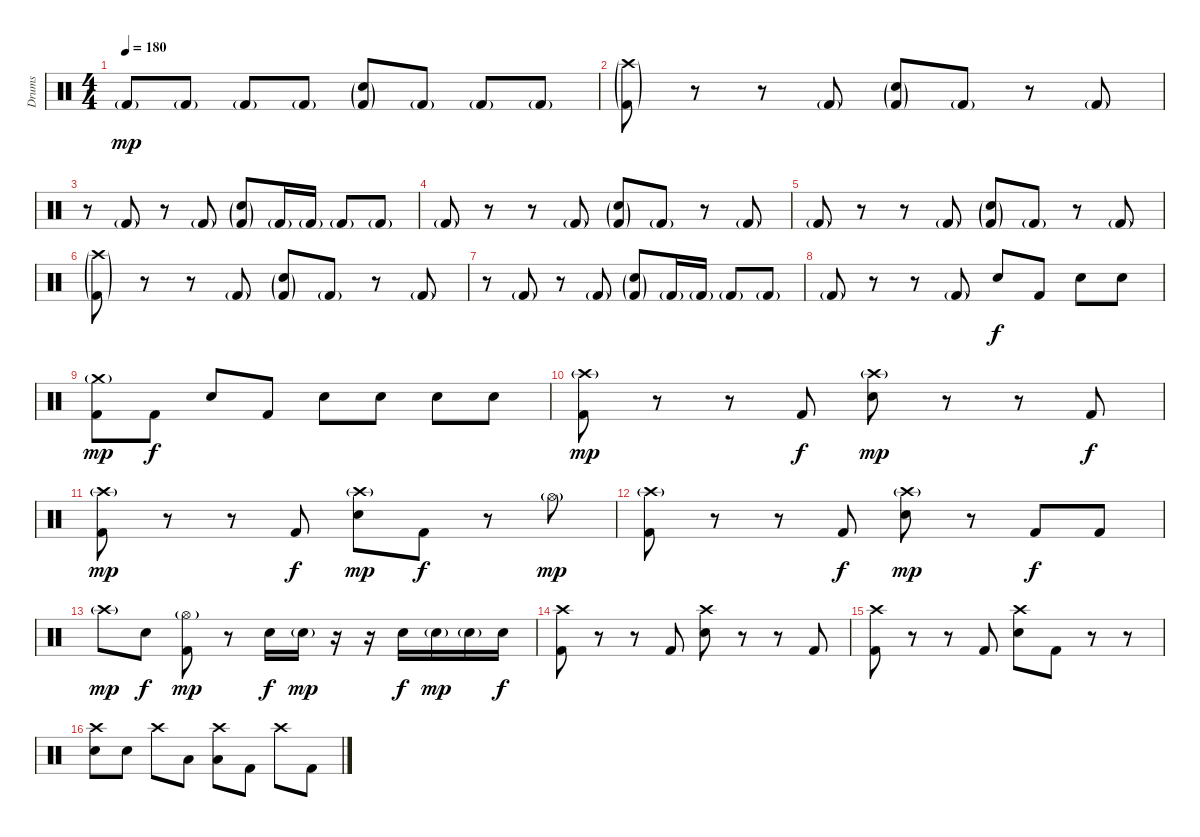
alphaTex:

\track ("Drums" "Drums") {instrument percussion}
\staff {score}
\articulation defaults
\ts (4 4)
\tempo 180
\clef neutral
\ks c "Kick (hit) 2"{g}.8{dy mp} "Kick (hit) 2"{g}.8 "Kick (hit) 2"{g}.8 "Kick (hit) 2"{g}.8
("Snare (hit) 2"{g} "Kick (hit) 2"{g}).8 "Kick (hit) 2"{g}.8 "Kick (hit) 2"{g}.8 "Kick (hit) 2"{g}.8 |
("Crash high (hit)"{g} "Kick (hit) 2"{g}).8 r.8 r.8 "Kick (hit) 2"{g}.8 ("Snare (hit) 2"{g} "Kick (hit) 2"{g}).8 "Kick (hit) 2"{g}.8 r.8 "Kick (hit) 2"{g}.8 |
r.8 "Kick (hit) 2"{g}.8 r.8 "Kick (hit) 2"{g}.8 ("Snare (hit) 2"{g} "Kick (hit) 2"{g}).8 "Kick (hit) 2"{g}.16 "Kick (hit) 2"{g}.16 "Kick (hit) 2"{g}.8 "Kick (hit) 2"{g}.8 |
"Kick (hit) 2"{g}.8 r.8 r.8 "Kick (hit) 2"{g}.8 ("Snare (hit) 2"{g} "Kick (hit) 2"{g}).8 "Kick (hit) 2"{g}.8 r.8 "Kick (hit) 2"{g}.8 |
"Kick (hit) 2"{g}.8 r.8 r.8 "Kick (hit) 2"{g}.8 ("Snare (hit) 2"{g} "Kick (hit) 2"{g}).8 "Kick (hit) 2"{g}.8 r.8 "Kick (hit) 2"{g}.8 |
("Crash high (hit)"{g} "Kick (hit) 2"{g}).8 r.8 r.8 "Kick (hit) 2"{g}.8 ("Snare (hit) 2"{g} "Kick (hit) 2"{g}).8 "Kick (hit) 2"{g}.8 r.8 "Kick (hit) 2"{g}.8 |
r.8 "Kick (hit) 2"{g}.8 r.8 "Kick (hit) 2"{g}.8 ("Snare (hit) 2"{g} "Kick (hit) 2"{g}).8 "Kick (hit) 2"{g}.16 "Kick (hit) 2"{g}.16 "Kick (hit) 2"{g}.8 "Kick (hit) 2"{g}.8 |
"Kick (hit) 2"{g}.8 r.8 r.8 "Kick (hit) 2"{g}.8 "Snare (hit) 2".8{dy f} "Kick (hit) 2".8 "Snare (hit) 2".8 "Snare (hit) 2".8 |
("Crash medium (hit)"{g} "Kick (hit) 2").8{dy mp} "Kick (hit) 2".8{dy f} "Snare (hit) 2".8 "Kick (hit) 2".8 "Snare (hit) 2".8 "Snare (hit) 2".8 "Snare (hit) 2".8 "Snare (hit) 2".8 |
("Crash high (hit)"{g} "Kick (hit) 2").8{dy mp} r.8 r.8 "Kick (hit) 2".8{dy f} ("Crash high (hit)"{g} "Snare (hit) 2").8{dy mp} r.8 r.8 "Kick (hit) 2".8{dy f} |
("Crash high (hit)"{g} "Kick (hit) 2").8{dy mp} r.8 r.8 "Kick (hit) 2".8{dy f} ("Crash high (hit)"{g} "Snare (hit) 2").8{dy mp} "Kick (hit) 2".8{dy f} r.8 "Hi-Hat (open)"{g}.8{dy mp} |
("Crash high (hit)"{g} "Kick (hit) 2").8 r.8 r.8 "Kick (hit) 2".8{dy f} ("Crash high (hit)"{g} "Snare (hit) 2").8{dy mp} r.8 "Kick (hit) 2".8{dy f} "Kick (hit) 2".8 |
"Crash high (hit)"{g}.8{dy mp} "Snare (hit) 2".8{dy f} ("Hi-Hat (open)"{g} "Kick (hit) 2").8{dy mp} r.8 "Snare (hit) 2".16{dy f} "Snare (hit) 2"{g}.16{dy mp} r.16 r.16 "Snare (hit) 2".16{dy f} "Snare (hit) 2"{g}.16{dy mp} "Snare (hit) 2"{g}.16 "Snare (hit) 2".16{dy f} |
("Crash high (hit)" "Kick (hit) 2").8 r.8 r.8 "Kick (hit) 2".8 ("Crash high (hit)" "Snare (hit) 2").8 r.8 r.8 "Kick (hit) 2".8 |
("Crash high (hit)" "Kick (hit) 2").8 r.8 r.8 "Kick (hit) 2".8 ("Crash high (hit)" "Snare (hit) 2").8 "Kick (hit) 2".8 r.8 r.8 |
("Crash high (hit)" "Snare (hit) 2").8 "Snare (hit) 2".8 "Crash high (hit)".8 "Low Tom (hit)".8 ("Crash high (hit)" "Low Floor Tom (hit)").8 "Kick (hit) 2".8 "Crash high (hit)".8 "Kick (hit) 2".8
